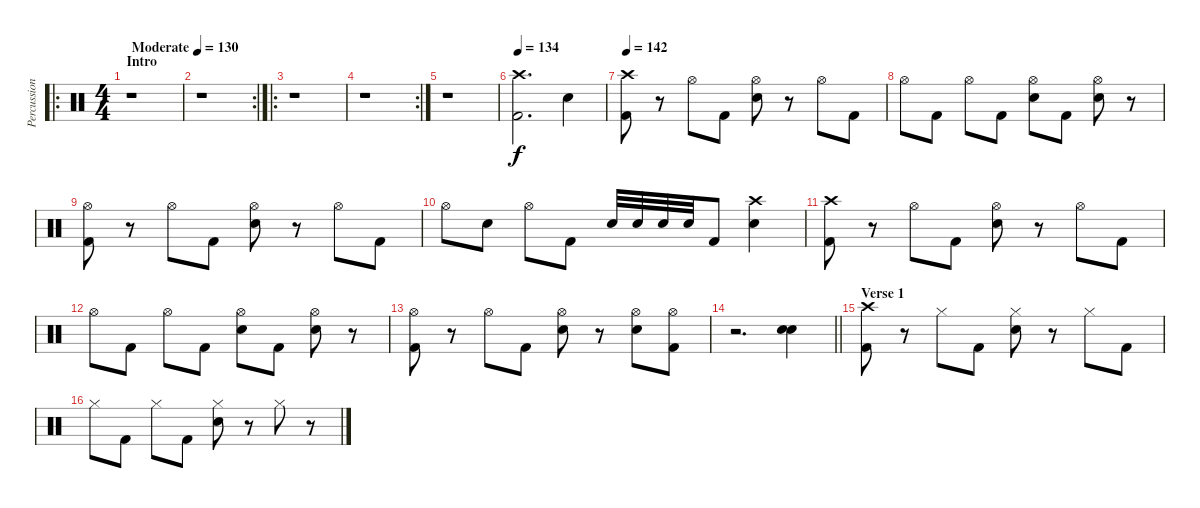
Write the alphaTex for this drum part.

\track ("Percussion" "Percussion") {instrument percussion}
\staff {score}
\articulation defaults
\ro
\ts (4 4)
\section ("" "Intro")
\tempo (130 "Moderate")
\clef neutral
\ks c
r.1{dy f} |
\rc 2
r.1 |
\ro
r.1 |
\rc 2
r.1 |
r.1 |
\tempo 134
("Crash high (hit)" "Kick (hit) 2").2{d} "Snare (hit) 2".4 |
\tempo 142
("Crash high (hit)" "Kick (hit) 2").8 r.8 "Hi-Hat (open)".8 "Kick (hit) 2".8 ("Hi-Hat (open)" "Snare (hit) 2").8 r.8 "Hi-Hat (open)".8 "Kick (hit) 2".8 |
"Hi-Hat (open)".8 "Kick (hit) 2".8 "Hi-Hat (open)".8 "Kick (hit) 2".8 ("Hi-Hat (open)" "Snare (hit) 2").8 "Kick (hit) 2".8 ("Hi-Hat (open)" "Snare (hit) 2").8 r.8 |
("Hi-Hat (open)" "Kick (hit) 2").8 r.8 "Hi-Hat (open)".8 "Kick (hit) 2".8 ("Hi-Hat (open)" "Snare (hit) 2").8 r.8 "Hi-Hat (open)".8 "Kick (hit) 2".8 |
"Hi-Hat (open)".8 "Snare (hit) 2".8 "Hi-Hat (open)".8 "Kick (hit) 2".8 "Snare (hit) 2".32 "Snare (hit) 2".32 "Snare (hit) 2".32 "Snare (hit) 2".32 "Kick (hit) 2".8 ("Crash high (hit)" "Snare (hit) 2").4 |
("Crash high (hit)" "Kick (hit) 2").8 r.8 "Hi-Hat (open)".8 "Kick (hit) 2".8 ("Hi-Hat (open)" "Snare (hit) 2").8 r.8 "Hi-Hat (open)".8 "Kick (hit) 2".8 |
"Hi-Hat (open)".8 "Kick (hit) 2".8 "Hi-Hat (open)".8 "Kick (hit) 2".8 ("Hi-Hat (open)" "Snare (hit) 2").8 "Kick (hit) 2".8 ("Hi-Hat (open)" "Snare (hit) 2").8 r.8 |
("Hi-Hat (open)" "Kick (hit) 2").8 r.8 "Hi-Hat (open)".8 "Kick (hit) 2".8 ("Hi-Hat (open)" "Snare (hit) 2").8 r.8 ("Hi-Hat (open)" "Snare (hit) 2").8 ("Hi-Hat (open)" "Kick (hit) 2").8 |
\barLineRight lightlight
r.2{d} ("Snare (hit) 2" "Snare (hit) 2").4 |
\section ("" "Verse 1")
("Crash high (hit)" "Kick (hit) 2").8 r.8 "Hi-Hat (closed)".8 "Kick (hit) 2".8 ("Hi-Hat (closed)" "Snare (hit) 2").8 r.8 "Hi-Hat (closed)".8 "Kick (hit) 2".8 |
"Hi-Hat (closed)".8 "Kick (hit) 2".8 "Hi-Hat (closed)".8 "Kick (hit) 2".8 ("Hi-Hat (closed)" "Snare (hit) 2").8 r.8 "Hi-Hat (closed)".8 r.8
